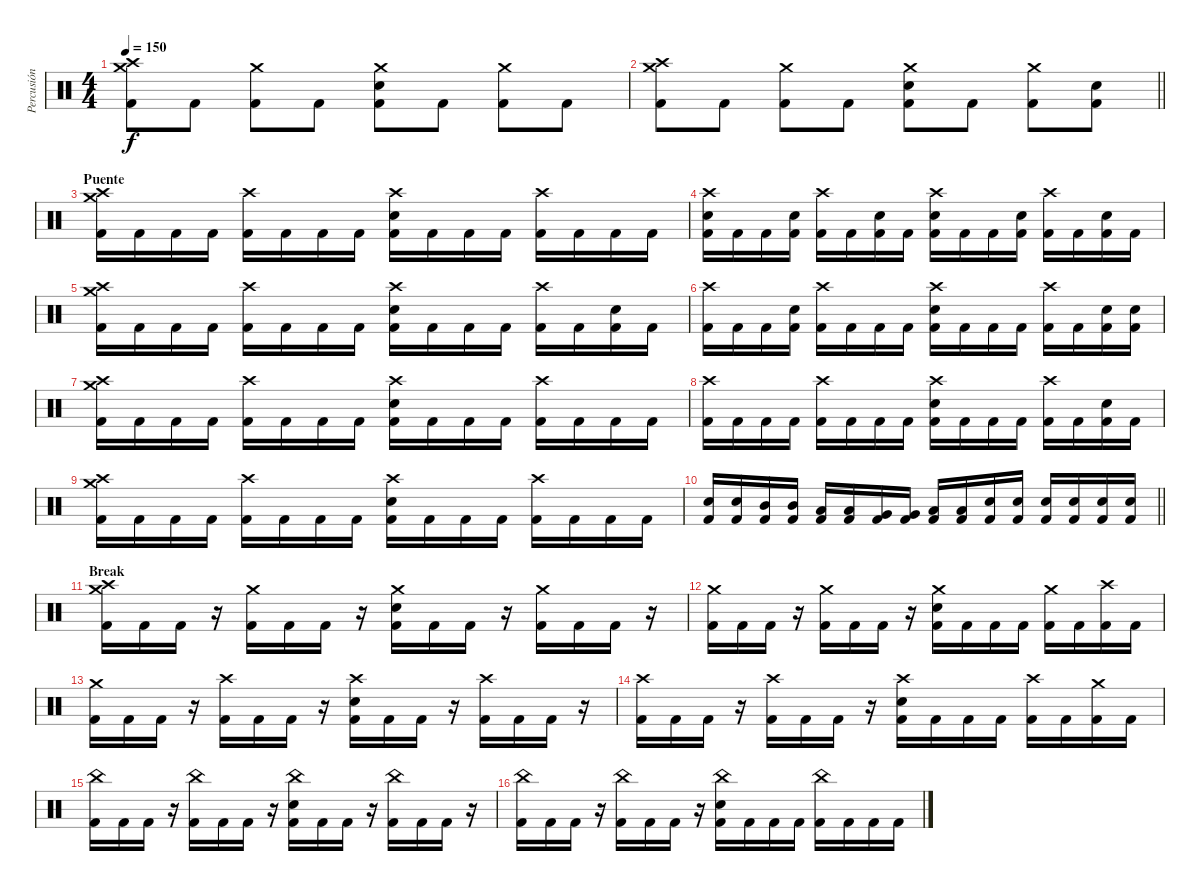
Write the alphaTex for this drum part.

\track ("Percusión" "Percusión") {instrument percussion}
\staff {score}
\articulation defaults
\ts (4 4)
\tempo 150
\clef neutral
\ks c
("Crash medium (hit)" "Crash high (hit)" "Kick (hit) 2").8{dy f} "Kick (hit) 2".8 ("Crash medium (hit)" "Kick (hit) 2").8 "Kick (hit) 2".8 ("Crash medium (hit)" "Electric Snare (hit)" "Kick (hit) 2").8 "Kick (hit) 2".8 ("Crash medium (hit)" "Kick (hit) 2").8 "Kick (hit) 2".8 |
\barLineRight lightlight
("Crash medium (hit)" "Crash high (hit)" "Kick (hit) 2").8 "Kick (hit) 2".8 ("Crash medium (hit)" "Kick (hit) 2").8 "Kick (hit) 2".8 ("Crash medium (hit)" "Electric Snare (hit)" "Kick (hit) 2").8 "Kick (hit) 2".8 ("Crash medium (hit)" "Kick (hit) 2").8 ("Electric Snare (hit)" "Kick (hit) 2").8 |
\section ("" "Puente")
("Crash high (hit)" "Crash medium (hit)" "Kick (hit) 2").16 "Kick (hit) 2".16 "Kick (hit) 2".16 "Kick (hit) 2".16 ("Crash high (hit)" "Kick (hit) 2").16 "Kick (hit) 2".16 "Kick (hit) 2".16 "Kick (hit) 2".16 ("Crash high (hit)" "Electric Snare (hit)" "Kick (hit) 2").16 "Kick (hit) 2".16 "Kick (hit) 2".16 "Kick (hit) 2".16 ("Crash high (hit)" "Kick (hit) 2").16 "Kick (hit) 2".16 "Kick (hit) 2".16 "Kick (hit) 2".16 |
("Crash high (hit)" "Electric Snare (hit)" "Kick (hit) 2").16 "Kick (hit) 2".16 "Kick (hit) 2".16 ("Electric Snare (hit)" "Kick (hit) 2").16 ("Crash high (hit)" "Kick (hit) 2").16 "Kick (hit) 2".16 ("Electric Snare (hit)" "Kick (hit) 2").16 "Kick (hit) 2".16 ("Crash high (hit)" "Electric Snare (hit)" "Kick (hit) 2").16 "Kick (hit) 2".16 "Kick (hit) 2".16 ("Electric Snare (hit)" "Kick (hit) 2").16 ("Crash high (hit)" "Kick (hit) 2").16 "Kick (hit) 2".16 ("Electric Snare (hit)" "Kick (hit) 2").16 "Kick (hit) 2".16 |
("Crash high (hit)" "Crash medium (hit)" "Kick (hit) 2").16 "Kick (hit) 2".16 "Kick (hit) 2".16 "Kick (hit) 2".16 ("Crash high (hit)" "Kick (hit) 2").16 "Kick (hit) 2".16 "Kick (hit) 2".16 "Kick (hit) 2".16 ("Crash high (hit)" "Electric Snare (hit)" "Kick (hit) 2").16 "Kick (hit) 2".16 "Kick (hit) 2".16 "Kick (hit) 2".16 ("Crash high (hit)" "Kick (hit) 2").16 "Kick (hit) 2".16 ("Electric Snare (hit)" "Kick (hit) 2").16 "Kick (hit) 2".16 |
("Crash high (hit)" "Kick (hit) 2").16 "Kick (hit) 2".16 "Kick (hit) 2".16 ("Electric Snare (hit)" "Kick (hit) 2").16 ("Crash high (hit)" "Kick (hit) 2").16 "Kick (hit) 2".16 "Kick (hit) 2".16 "Kick (hit) 2".16 ("Crash high (hit)" "Electric Snare (hit)" "Kick (hit) 2").16 "Kick (hit) 2".16 "Kick (hit) 2".16 "Kick (hit) 2".16 ("Crash high (hit)" "Kick (hit) 2").16 "Kick (hit) 2".16 ("Electric Snare (hit)" "Kick (hit) 2").16 ("Electric Snare (hit)" "Kick (hit) 2").16 |
("Crash high (hit)" "Crash medium (hit)" "Kick (hit) 2").16 "Kick (hit) 2".16 "Kick (hit) 2".16 "Kick (hit) 2".16 ("Crash high (hit)" "Kick (hit) 2").16 "Kick (hit) 2".16 "Kick (hit) 2".16 "Kick (hit) 2".16 ("Crash high (hit)" "Electric Snare (hit)" "Kick (hit) 2").16 "Kick (hit) 2".16 "Kick (hit) 2".16 "Kick (hit) 2".16 ("Crash high (hit)" "Kick (hit) 2").16 "Kick (hit) 2".16 "Kick (hit) 2".16 "Kick (hit) 2".16 |
("Crash high (hit)" "Kick (hit) 2").16 "Kick (hit) 2".16 "Kick (hit) 2".16 "Kick (hit) 2".16 ("Crash high (hit)" "Kick (hit) 2").16 "Kick (hit) 2".16 "Kick (hit) 2".16 "Kick (hit) 2".16 ("Crash high (hit)" "Electric Snare (hit)" "Kick (hit) 2").16 "Kick (hit) 2".16 "Kick (hit) 2".16 "Kick (hit) 2".16 ("Crash high (hit)" "Kick (hit) 2").16 "Kick (hit) 2".16 ("Electric Snare (hit)" "Kick (hit) 2").16 "Kick (hit) 2".16 |
("Crash high (hit)" "Crash medium (hit)" "Kick (hit) 2").16 "Kick (hit) 2".16 "Kick (hit) 2".16 "Kick (hit) 2".16 ("Crash high (hit)" "Kick (hit) 2").16 "Kick (hit) 2".16 "Kick (hit) 2".16 "Kick (hit) 2".16 ("Crash high (hit)" "Electric Snare (hit)" "Kick (hit) 2").16 "Kick (hit) 2".16 "Kick (hit) 2".16 "Kick (hit) 2".16 ("Crash high (hit)" "Kick (hit) 2").16 "Kick (hit) 2".16 "Kick (hit) 2".16 "Kick (hit) 2".16 |
\barLineRight lightlight
("Electric Snare (hit)" "Kick (hit) 2").16 ("Electric Snare (hit)" "Kick (hit) 2").16 ("Mid Tom (hit)" "Kick (hit) 2").16 ("Mid Tom (hit)" "Kick (hit) 2").16 ("Low Tom (hit)" "Kick (hit) 2").16 ("Low Tom (hit)" "Kick (hit) 2").16 ("Very Low Tom (hit)" "Kick (hit) 2").16 ("Very Low Tom (hit)" "Kick (hit) 2").16 ("Low Floor Tom (hit)" "Kick (hit) 2").16 ("Low Floor Tom (hit)" "Kick (hit) 2").16 ("Electric Snare (hit)" "Kick (hit) 2").16 ("Electric Snare (hit)" "Kick (hit) 2").16 ("Electric Snare (hit)" "Kick (hit) 2").16 ("Electric Snare (hit)" "Kick (hit) 2").16 ("Electric Snare (hit)" "Kick (hit) 2").16 ("Electric Snare (hit)" "Kick (hit) 2").16 |
\section ("" "Break ")
("Crash medium (hit)" "Crash high (hit)" "Kick (hit) 2").16 "Kick (hit) 2".16 "Kick (hit) 2".16 r.16 ("Crash medium (hit)" "Kick (hit) 2").16 "Kick (hit) 2".16 "Kick (hit) 2".16 r.16 ("Crash medium (hit)" "Electric Snare (hit)" "Kick (hit) 2").16 "Kick (hit) 2".16 "Kick (hit) 2".16 r.16 ("Crash medium (hit)" "Kick (hit) 2").16 "Kick (hit) 2".16 "Kick (hit) 2".16 r.16 |
("Crash medium (hit)" "Kick (hit) 2").16 "Kick (hit) 2".16 "Kick (hit) 2".16 r.16 ("Crash medium (hit)" "Kick (hit) 2").16 "Kick (hit) 2".16 "Kick (hit) 2".16 r.16 ("Crash medium (hit)" "Electric Snare (hit)" "Kick (hit) 2").16 "Kick (hit) 2".16 "Kick (hit) 2".16 "Kick (hit) 2".16 ("Crash medium (hit)" "Kick (hit) 2").16 "Kick (hit) 2".16 ("Crash high (hit)" "Kick (hit) 2").16 "Kick (hit) 2".16 |
("Crash medium (hit)" "Kick (hit) 2").16 "Kick (hit) 2".16 "Kick (hit) 2".16 r.16 ("Crash high (hit)" "Kick (hit) 2").16 "Kick (hit) 2".16 "Kick (hit) 2".16 r.16 ("Crash high (hit)" "Electric Snare (hit)" "Kick (hit) 2").16 "Kick (hit) 2".16 "Kick (hit) 2".16 r.16 ("Crash high (hit)" "Kick (hit) 2").16 "Kick (hit) 2".16 "Kick (hit) 2".16 r.16 |
("Crash high (hit)" "Kick (hit) 2").16 "Kick (hit) 2".16 "Kick (hit) 2".16 r.16 ("Crash high (hit)" "Kick (hit) 2").16 "Kick (hit) 2".16 "Kick (hit) 2".16 r.16 ("Crash high (hit)" "Electric Snare (hit)" "Kick (hit) 2").16 "Kick (hit) 2".16 "Kick (hit) 2".16 "Kick (hit) 2".16 ("Crash high (hit)" "Kick (hit) 2").16 "Kick (hit) 2".16 ("Crash medium (hit)" "Kick (hit) 2").16 "Kick (hit) 2".16 |
("China (hit)" "Kick (hit) 2").16 "Kick (hit) 2".16 "Kick (hit) 2".16 r.16 ("China (hit)" "Kick (hit) 2").16 "Kick (hit) 2".16 "Kick (hit) 2".16 r.16 ("China (hit)" "Electric Snare (hit)" "Kick (hit) 2").16 "Kick (hit) 2".16 "Kick (hit) 2".16 r.16 ("China (hit)" "Kick (hit) 2").16 "Kick (hit) 2".16 "Kick (hit) 2".16 r.16 |
("China (hit)" "Kick (hit) 2").16 "Kick (hit) 2".16 "Kick (hit) 2".16 r.16 ("China (hit)" "Kick (hit) 2").16 "Kick (hit) 2".16 "Kick (hit) 2".16 r.16 ("China (hit)" "Electric Snare (hit)" "Kick (hit) 2").16 "Kick (hit) 2".16 "Kick (hit) 2".16 "Kick (hit) 2".16 ("China (hit)" "Kick (hit) 2").16 "Kick (hit) 2".16 "Kick (hit) 2".16 "Kick (hit) 2".16
